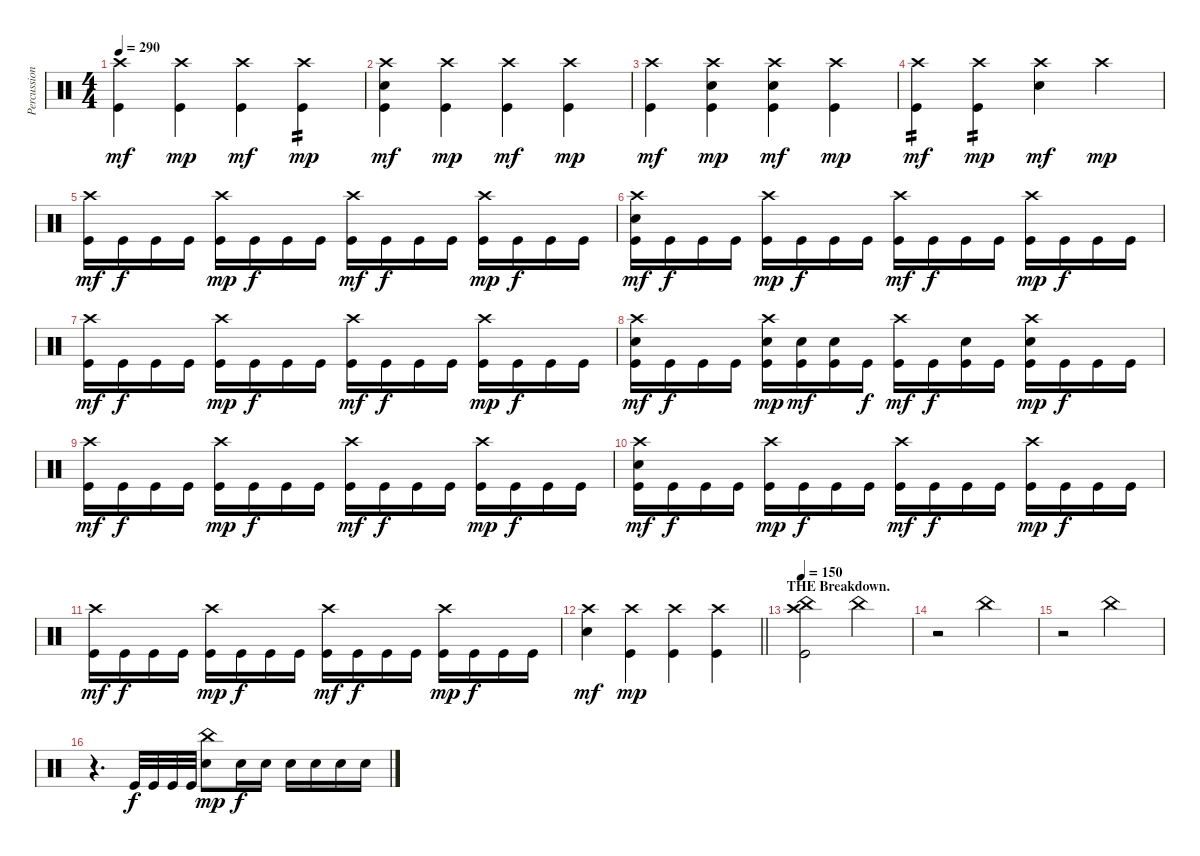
\track ("Percussion" "Percussion") {instrument percussion}
\staff {score}
\articulation defaults
\ts (4 4)
\tempo 290
\clef neutral
\ks c
("Crash high (hit)" "Kick (hit)").4{dy mf} ("Crash high (hit)" "Kick (hit)").4{dy mp} ("Crash high (hit)" "Kick (hit)").4{dy mf} ("Crash high (hit)" "Kick (hit)").4{tp 2 dy mp} |
("Crash high (hit)" "Electric Snare (hit)" "Kick (hit)").4{dy mf} ("Crash high (hit)" "Kick (hit)").4{dy mp} ("Crash high (hit)" "Kick (hit)").4{dy mf} ("Crash high (hit)" "Kick (hit)").4{dy mp} |
("Crash high (hit)" "Kick (hit)").4{dy mf} ("Crash high (hit)" "Electric Snare (hit)" "Kick (hit)").4{dy mp} ("Crash high (hit)" "Electric Snare (hit)" "Kick (hit)").4{dy mf} ("Crash high (hit)" "Kick (hit)").4{dy mp} |
("Crash high (hit)" "Kick (hit)").4{tp 2 dy mf} ("Crash high (hit)" "Kick (hit)").4{tp 2 dy mp} ("Crash high (hit)" "Electric Snare (hit)").4{dy mf} "Crash high (hit)".4{dy mp} |
("Crash high (hit)" "Kick (hit)").16{dy mf} "Kick (hit)".16{dy f} "Kick (hit)".16 "Kick (hit)".16 ("Crash high (hit)" "Kick (hit)").16{dy mp} "Kick (hit)".16{dy f} "Kick (hit)".16 "Kick (hit)".16 ("Crash high (hit)" "Kick (hit)").16{dy mf} "Kick (hit)".16{dy f} "Kick (hit)".16 "Kick (hit)".16 ("Crash high (hit)" "Kick (hit)").16{dy mp} "Kick (hit)".16{dy f} "Kick (hit)".16 "Kick (hit)".16 |
("Crash high (hit)" "Electric Snare (hit)" "Kick (hit)").16{dy mf} "Kick (hit)".16{dy f} "Kick (hit)".16 "Kick (hit)".16 ("Crash high (hit)" "Kick (hit)").16{dy mp} "Kick (hit)".16{dy f} "Kick (hit)".16 "Kick (hit)".16 ("Crash high (hit)" "Kick (hit)").16{dy mf} "Kick (hit)".16{dy f} "Kick (hit)".16 "Kick (hit)".16 ("Crash high (hit)" "Kick (hit)").16{dy mp} "Kick (hit)".16{dy f} "Kick (hit)".16 "Kick (hit)".16 |
("Crash high (hit)" "Kick (hit)").16{dy mf} "Kick (hit)".16{dy f} "Kick (hit)".16 "Kick (hit)".16 ("Crash high (hit)" "Kick (hit)").16{dy mp} "Kick (hit)".16{dy f} "Kick (hit)".16 "Kick (hit)".16 ("Crash high (hit)" "Kick (hit)").16{dy mf} "Kick (hit)".16{dy f} "Kick (hit)".16 "Kick (hit)".16 ("Crash high (hit)" "Kick (hit)").16{dy mp} "Kick (hit)".16{dy f} "Kick (hit)".16 "Kick (hit)".16 |
("Crash high (hit)" "Electric Snare (hit)" "Kick (hit)").16{dy mf} "Kick (hit)".16{dy f} "Kick (hit)".16 "Kick (hit)".16 ("Crash high (hit)" "Electric Snare (hit)" "Kick (hit)").16{dy mp} ("Electric Snare (hit)" "Kick (hit)").16{dy mf} ("Electric Snare (hit)" "Kick (hit)").16 "Kick (hit)".16{dy f} ("Crash high (hit)" "Kick (hit)").16{dy mf} "Kick (hit)".16{dy f} ("Electric Snare (hit)" "Kick (hit)").16 "Kick (hit)".16 ("Crash high (hit)" "Electric Snare (hit)" "Kick (hit)").16{dy mp} "Kick (hit)".16{dy f} "Kick (hit)".16 "Kick (hit)".16 |
("Crash high (hit)" "Kick (hit)").16{dy mf} "Kick (hit)".16{dy f} "Kick (hit)".16 "Kick (hit)".16 ("Crash high (hit)" "Kick (hit)").16{dy mp} "Kick (hit)".16{dy f} "Kick (hit)".16 "Kick (hit)".16 ("Crash high (hit)" "Kick (hit)").16{dy mf} "Kick (hit)".16{dy f} "Kick (hit)".16 "Kick (hit)".16 ("Crash high (hit)" "Kick (hit)").16{dy mp} "Kick (hit)".16{dy f} "Kick (hit)".16 "Kick (hit)".16 |
("Crash high (hit)" "Electric Snare (hit)" "Kick (hit)").16{dy mf} "Kick (hit)".16{dy f} "Kick (hit)".16 "Kick (hit)".16 ("Crash high (hit)" "Kick (hit)").16{dy mp} "Kick (hit)".16{dy f} "Kick (hit)".16 "Kick (hit)".16 ("Crash high (hit)" "Kick (hit)").16{dy mf} "Kick (hit)".16{dy f} "Kick (hit)".16 "Kick (hit)".16 ("Crash high (hit)" "Kick (hit)").16{dy mp} "Kick (hit)".16{dy f} "Kick (hit)".16 "Kick (hit)".16 |
("Crash high (hit)" "Kick (hit)").16{dy mf} "Kick (hit)".16{dy f} "Kick (hit)".16 "Kick (hit)".16 ("Crash high (hit)" "Kick (hit)").16{dy mp} "Kick (hit)".16{dy f} "Kick (hit)".16 "Kick (hit)".16 ("Crash high (hit)" "Kick (hit)").16{dy mf} "Kick (hit)".16{dy f} "Kick (hit)".16 "Kick (hit)".16 ("Crash high (hit)" "Kick (hit)").16{dy mp} "Kick (hit)".16{dy f} "Kick (hit)".16 "Kick (hit)".16 |
\barLineRight lightlight
("Crash high (hit)" "Electric Snare (hit)").4{dy mf} ("Crash high (hit)" "Kick (hit)").4{dy mp} ("Crash high (hit)" "Kick (hit)").4 ("Crash high (hit)" "Kick (hit)").4 |
\section ("" "THE Breakdown.")
\tempo 150
("Crash high (hit)" "China (hit)" "Kick (hit)").2 "China (hit)".2 |
r.2 "China (hit)".2 |
r.2 "China (hit)".2 |
r.4{d} "Kick (hit)".32{dy f} "Kick (hit)".32 "Kick (hit)".32 "Kick (hit)".32 ("China (hit)" "Electric Snare (hit)").8{dy mp} "Electric Snare (hit)".16{dy f} "Electric Snare (hit)".16 "Electric Snare (hit)".16 "Electric Snare (hit)".16 "Electric Snare (hit)".16 "Electric Snare (hit)".16
